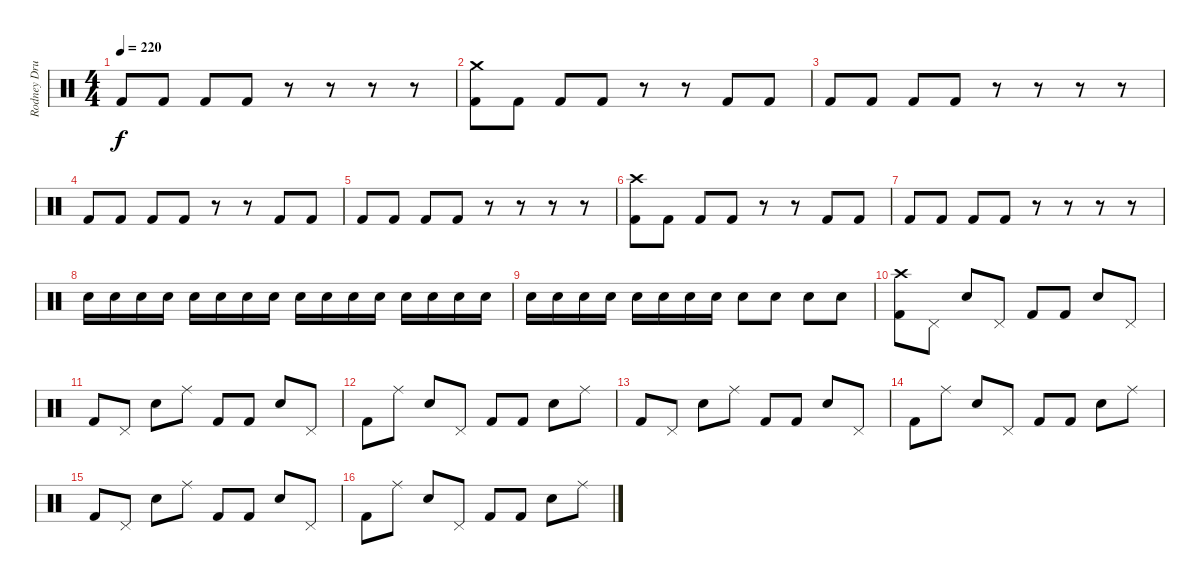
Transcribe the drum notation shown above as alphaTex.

\track ("Rodney Drums" "Rodney Dru") {instrument percussion}
\staff {score}
\articulation defaults
\ts (4 4)
\tempo 220
\clef neutral
\ks c "Kick (hit) 2".8{dy f} "Kick (hit) 2".8 "Kick (hit) 2".8 "Kick (hit) 2".8
r.8 r.8 r.8 r.8 |
("Crash medium (hit)" "Kick (hit) 2").8 "Kick (hit) 2".8 "Kick (hit) 2".8 "Kick (hit) 2".8 r.8 r.8 "Kick (hit) 2".8 "Kick (hit) 2".8 |
"Kick (hit) 2".8 "Kick (hit) 2".8 "Kick (hit) 2".8 "Kick (hit) 2".8 r.8 r.8 r.8 r.8 |
"Kick (hit) 2".8 "Kick (hit) 2".8 "Kick (hit) 2".8 "Kick (hit) 2".8 r.8 r.8 "Kick (hit) 2".8 "Kick (hit) 2".8 |
"Kick (hit) 2".8 "Kick (hit) 2".8 "Kick (hit) 2".8 "Kick (hit) 2".8 r.8 r.8 r.8 r.8 |
("Crash high (hit)" "Kick (hit) 2").8 "Kick (hit) 2".8 "Kick (hit) 2".8 "Kick (hit) 2".8 r.8 r.8 "Kick (hit) 2".8 "Kick (hit) 2".8 |
"Kick (hit) 2".8 "Kick (hit) 2".8 "Kick (hit) 2".8 "Kick (hit) 2".8 r.8 r.8 r.8 r.8 |
"Electric Snare (hit)".16 "Electric Snare (hit)".16 "Electric Snare (hit)".16 "Electric Snare (hit)".16 "Electric Snare (hit)".16 "Electric Snare (hit)".16 "Electric Snare (hit)".16 "Electric Snare (hit)".16 "Electric Snare (hit)".16 "Electric Snare (hit)".16 "Electric Snare (hit)".16 "Electric Snare (hit)".16 "Electric Snare (hit)".16 "Electric Snare (hit)".16 "Electric Snare (hit)".16 "Electric Snare (hit)".16 |
"Electric Snare (hit)".16 "Electric Snare (hit)".16 "Electric Snare (hit)".16 "Electric Snare (hit)".16 "Electric Snare (hit)".16 "Electric Snare (hit)".16 "Electric Snare (hit)".16 "Electric Snare (hit)".16 "Electric Snare (hit)".8 "Electric Snare (hit)".8 "Electric Snare (hit)".8 "Electric Snare (hit)".8 |
("Crash high (hit)" "Kick (hit) 2").8 "Pedal Hi-Hat (hit)".8 "Electric Snare (hit)".8 "Pedal Hi-Hat (hit)".8 "Kick (hit) 2".8 "Kick (hit) 2".8 "Electric Snare (hit)".8 "Pedal Hi-Hat (hit)".8 |
"Kick (hit) 2".8 "Pedal Hi-Hat (hit)".8 "Electric Snare (hit)".8 "Ride (middle)".8 "Kick (hit) 2".8 "Kick (hit) 2".8 "Electric Snare (hit)".8 "Pedal Hi-Hat (hit)".8 |
"Kick (hit) 2".8 "Ride (middle)".8 "Electric Snare (hit)".8 "Pedal Hi-Hat (hit)".8 "Kick (hit) 2".8 "Kick (hit) 2".8 "Electric Snare (hit)".8 "Ride (middle)".8 |
"Kick (hit) 2".8 "Pedal Hi-Hat (hit)".8 "Electric Snare (hit)".8 "Ride (middle)".8 "Kick (hit) 2".8 "Kick (hit) 2".8 "Electric Snare (hit)".8 "Pedal Hi-Hat (hit)".8 |
"Kick (hit) 2".8 "Ride (middle)".8 "Electric Snare (hit)".8 "Pedal Hi-Hat (hit)".8 "Kick (hit) 2".8 "Kick (hit) 2".8 "Electric Snare (hit)".8 "Ride (middle)".8 |
"Kick (hit) 2".8 "Pedal Hi-Hat (hit)".8 "Electric Snare (hit)".8 "Ride (middle)".8 "Kick (hit) 2".8 "Kick (hit) 2".8 "Electric Snare (hit)".8 "Pedal Hi-Hat (hit)".8 |
"Kick (hit) 2".8 "Ride (middle)".8 "Electric Snare (hit)".8 "Pedal Hi-Hat (hit)".8 "Kick (hit) 2".8 "Kick (hit) 2".8 "Electric Snare (hit)".8 "Ride (middle)".8
